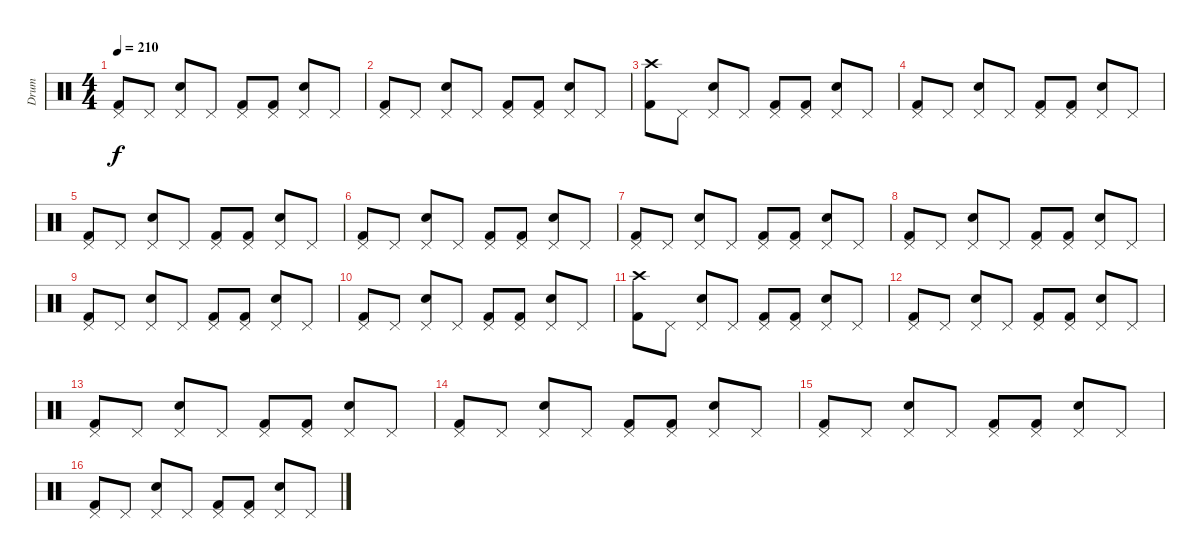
\track ("Drum" "Drum") {instrument percussion}
\staff {score}
\articulation defaults
\ts (4 4)
\tempo 210
\clef neutral
\ks c
("Pedal Hi-Hat (hit)" "Kick (hit) 2").8{dy f} "Pedal Hi-Hat (hit)".8 ("Pedal Hi-Hat (hit)" "Snare (hit) 2").8 "Pedal Hi-Hat (hit)".8 ("Pedal Hi-Hat (hit)" "Kick (hit) 2").8 ("Pedal Hi-Hat (hit)" "Kick (hit) 2").8 ("Pedal Hi-Hat (hit)" "Snare (hit) 2").8 "Pedal Hi-Hat (hit)".8 |
("Pedal Hi-Hat (hit)" "Kick (hit) 2").8 "Pedal Hi-Hat (hit)".8 ("Pedal Hi-Hat (hit)" "Snare (hit) 2").8 "Pedal Hi-Hat (hit)".8 ("Pedal Hi-Hat (hit)" "Kick (hit) 2").8 ("Pedal Hi-Hat (hit)" "Kick (hit) 2").8 ("Pedal Hi-Hat (hit)" "Snare (hit) 2").8 "Pedal Hi-Hat (hit)".8 |
("Crash high (hit)" "Kick (hit) 2").8 "Pedal Hi-Hat (hit)".8 ("Pedal Hi-Hat (hit)" "Snare (hit) 2").8 "Pedal Hi-Hat (hit)".8 ("Pedal Hi-Hat (hit)" "Kick (hit) 2").8 ("Pedal Hi-Hat (hit)" "Kick (hit) 2").8 ("Pedal Hi-Hat (hit)" "Snare (hit) 2").8 "Pedal Hi-Hat (hit)".8 |
("Pedal Hi-Hat (hit)" "Kick (hit) 2").8 "Pedal Hi-Hat (hit)".8 ("Pedal Hi-Hat (hit)" "Snare (hit) 2").8 "Pedal Hi-Hat (hit)".8 ("Pedal Hi-Hat (hit)" "Kick (hit) 2").8 ("Pedal Hi-Hat (hit)" "Kick (hit) 2").8 ("Pedal Hi-Hat (hit)" "Snare (hit) 2").8 "Pedal Hi-Hat (hit)".8 |
("Pedal Hi-Hat (hit)" "Kick (hit) 2").8 "Pedal Hi-Hat (hit)".8 ("Pedal Hi-Hat (hit)" "Snare (hit) 2").8 "Pedal Hi-Hat (hit)".8 ("Pedal Hi-Hat (hit)" "Kick (hit) 2").8 ("Pedal Hi-Hat (hit)" "Kick (hit) 2").8 ("Pedal Hi-Hat (hit)" "Snare (hit) 2").8 "Pedal Hi-Hat (hit)".8 |
("Pedal Hi-Hat (hit)" "Kick (hit) 2").8 "Pedal Hi-Hat (hit)".8 ("Pedal Hi-Hat (hit)" "Snare (hit) 2").8 "Pedal Hi-Hat (hit)".8 ("Pedal Hi-Hat (hit)" "Kick (hit) 2").8 ("Pedal Hi-Hat (hit)" "Kick (hit) 2").8 ("Pedal Hi-Hat (hit)" "Snare (hit) 2").8 "Pedal Hi-Hat (hit)".8 |
("Pedal Hi-Hat (hit)" "Kick (hit) 2").8 "Pedal Hi-Hat (hit)".8 ("Pedal Hi-Hat (hit)" "Snare (hit) 2").8 "Pedal Hi-Hat (hit)".8 ("Pedal Hi-Hat (hit)" "Kick (hit) 2").8 ("Pedal Hi-Hat (hit)" "Kick (hit) 2").8 ("Pedal Hi-Hat (hit)" "Snare (hit) 2").8 "Pedal Hi-Hat (hit)".8 |
("Pedal Hi-Hat (hit)" "Kick (hit) 2").8 "Pedal Hi-Hat (hit)".8 ("Pedal Hi-Hat (hit)" "Snare (hit) 2").8 "Pedal Hi-Hat (hit)".8 ("Pedal Hi-Hat (hit)" "Kick (hit) 2").8 ("Pedal Hi-Hat (hit)" "Kick (hit) 2").8 ("Pedal Hi-Hat (hit)" "Snare (hit) 2").8 "Pedal Hi-Hat (hit)".8 |
("Pedal Hi-Hat (hit)" "Kick (hit) 2").8 "Pedal Hi-Hat (hit)".8 ("Pedal Hi-Hat (hit)" "Snare (hit) 2").8 "Pedal Hi-Hat (hit)".8 ("Pedal Hi-Hat (hit)" "Kick (hit) 2").8 ("Pedal Hi-Hat (hit)" "Kick (hit) 2").8 ("Pedal Hi-Hat (hit)" "Snare (hit) 2").8 "Pedal Hi-Hat (hit)".8 |
("Pedal Hi-Hat (hit)" "Kick (hit) 2").8 "Pedal Hi-Hat (hit)".8 ("Pedal Hi-Hat (hit)" "Snare (hit) 2").8 "Pedal Hi-Hat (hit)".8 ("Pedal Hi-Hat (hit)" "Kick (hit) 2").8 ("Pedal Hi-Hat (hit)" "Kick (hit) 2").8 ("Pedal Hi-Hat (hit)" "Snare (hit) 2").8 "Pedal Hi-Hat (hit)".8 |
("Crash high (hit)" "Kick (hit) 2").8 "Pedal Hi-Hat (hit)".8 ("Pedal Hi-Hat (hit)" "Snare (hit) 2").8 "Pedal Hi-Hat (hit)".8 ("Pedal Hi-Hat (hit)" "Kick (hit) 2").8 ("Pedal Hi-Hat (hit)" "Kick (hit) 2").8 ("Pedal Hi-Hat (hit)" "Snare (hit) 2").8 "Pedal Hi-Hat (hit)".8 |
("Pedal Hi-Hat (hit)" "Kick (hit) 2").8 "Pedal Hi-Hat (hit)".8 ("Pedal Hi-Hat (hit)" "Snare (hit) 2").8 "Pedal Hi-Hat (hit)".8 ("Pedal Hi-Hat (hit)" "Kick (hit) 2").8 ("Pedal Hi-Hat (hit)" "Kick (hit) 2").8 ("Pedal Hi-Hat (hit)" "Snare (hit) 2").8 "Pedal Hi-Hat (hit)".8 |
("Pedal Hi-Hat (hit)" "Kick (hit) 2").8 "Pedal Hi-Hat (hit)".8 ("Pedal Hi-Hat (hit)" "Snare (hit) 2").8 "Pedal Hi-Hat (hit)".8 ("Pedal Hi-Hat (hit)" "Kick (hit) 2").8 ("Pedal Hi-Hat (hit)" "Kick (hit) 2").8 ("Pedal Hi-Hat (hit)" "Snare (hit) 2").8 "Pedal Hi-Hat (hit)".8 |
("Pedal Hi-Hat (hit)" "Kick (hit) 2").8 "Pedal Hi-Hat (hit)".8 ("Pedal Hi-Hat (hit)" "Snare (hit) 2").8 "Pedal Hi-Hat (hit)".8 ("Pedal Hi-Hat (hit)" "Kick (hit) 2").8 ("Pedal Hi-Hat (hit)" "Kick (hit) 2").8 ("Pedal Hi-Hat (hit)" "Snare (hit) 2").8 "Pedal Hi-Hat (hit)".8 |
("Pedal Hi-Hat (hit)" "Kick (hit) 2").8 "Pedal Hi-Hat (hit)".8 ("Pedal Hi-Hat (hit)" "Snare (hit) 2").8 "Pedal Hi-Hat (hit)".8 ("Pedal Hi-Hat (hit)" "Kick (hit) 2").8 ("Pedal Hi-Hat (hit)" "Kick (hit) 2").8 ("Pedal Hi-Hat (hit)" "Snare (hit) 2").8 "Pedal Hi-Hat (hit)".8 |
("Pedal Hi-Hat (hit)" "Kick (hit) 2").8 "Pedal Hi-Hat (hit)".8 ("Pedal Hi-Hat (hit)" "Snare (hit) 2").8 "Pedal Hi-Hat (hit)".8 ("Pedal Hi-Hat (hit)" "Kick (hit) 2").8 ("Pedal Hi-Hat (hit)" "Kick (hit) 2").8 ("Pedal Hi-Hat (hit)" "Snare (hit) 2").8 "Pedal Hi-Hat (hit)".8
